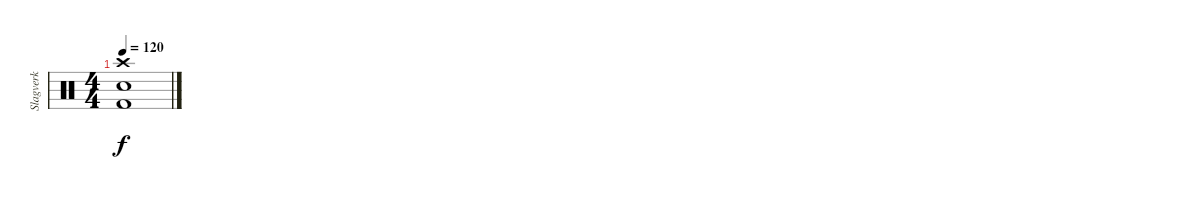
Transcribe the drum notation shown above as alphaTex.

\track ("Slagverk" "Slagverk") {instrument percussion}
\staff {score}
\articulation defaults
\ts (4 4)
\tempo 120
\clef neutral
\ks c
("Crash high (hit)" "Kick (hit) 2" "Snare (hit) 2").1{dy f}
